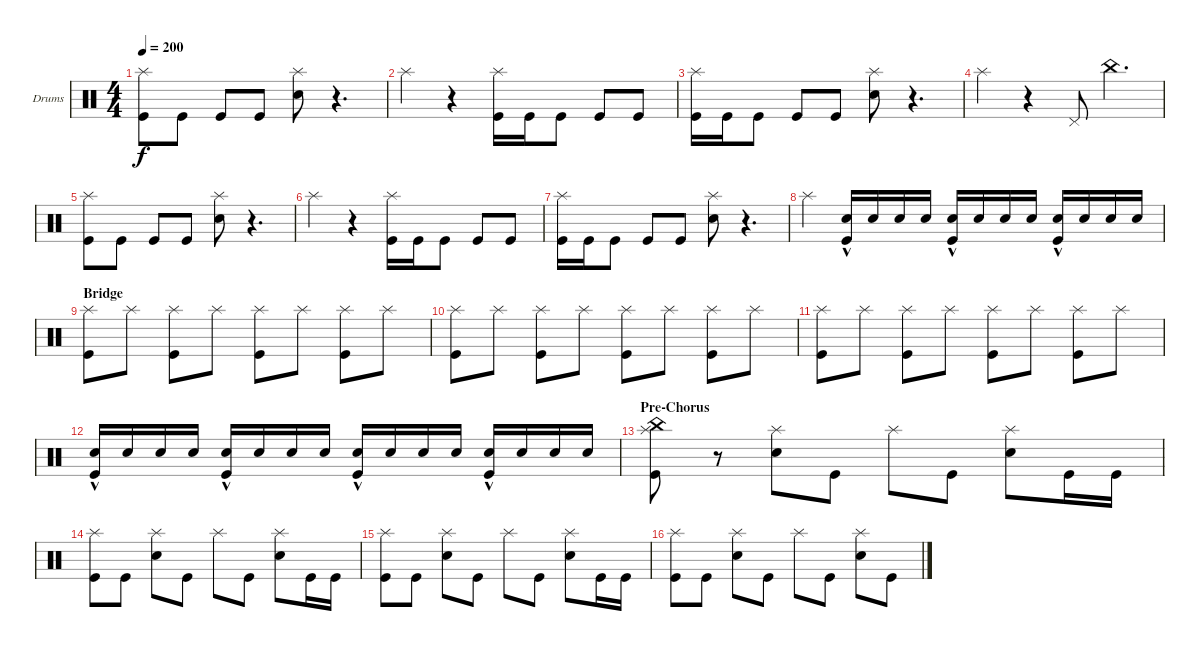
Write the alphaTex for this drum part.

\defaultSystemsLayout 4
\bracketExtendMode groupsimilarinstruments
\firstSystemTrackNameOrientation horizontal
\otherSystemsTrackNameOrientation horizontal
\track ("Drumkit" "Drums") {instrument percussion}
\staff {score}
\articulation defaults
\ts (4 4)
\tempo 200
\clef neutral
\ks c
("Kick (hit)" "Splash (hit)").8{dy f} "Kick (hit)".8 "Kick (hit)".8 "Kick (hit)".8 ("Splash (hit)" "Snare (hit) 2").8 r.4{d} |
"Splash (hit)".4 r.4 ("Kick (hit)" "Splash (hit)").16 "Kick (hit)".16 "Kick (hit)".8 "Kick (hit)".8 "Kick (hit)".8 |
("Kick (hit)" "Splash (hit)").16 "Kick (hit)".16 "Kick (hit)".8 "Kick (hit)".8 "Kick (hit)".8 ("Snare (hit) 2" "Splash (hit)").8 r.4{d} |
"Splash (hit)".4 r.4 "Pedal Hi-Hat (hit)".8 "China (hit)".4{d} |
("Kick (hit)" "Splash (hit)").8 "Kick (hit)".8 "Kick (hit)".8 "Kick (hit)".8 ("Splash (hit)" "Snare (hit) 2").8 r.4{d} |
"Splash (hit)".4 r.4 ("Kick (hit)" "Splash (hit)").16 "Kick (hit)".16 "Kick (hit)".8 "Kick (hit)".8 "Kick (hit)".8 |
("Kick (hit)" "Splash (hit)").16 "Kick (hit)".16 "Kick (hit)".8 "Kick (hit)".8 "Kick (hit)".8 ("Snare (hit) 2" "Splash (hit)").8 r.4{d} |
"Splash (hit)".4 ("Kick (hit)" "Snare (hit) 2"{hac}).16 "Snare (hit) 2".16 "Snare (hit) 2".16 "Snare (hit) 2".16 ("Kick (hit)" "Snare (hit) 2"{hac}).16 "Snare (hit) 2".16 "Snare (hit) 2".16 "Snare (hit) 2".16 ("Kick (hit)" "Snare (hit) 2"{hac}).16 "Snare (hit) 2".16 "Snare (hit) 2".16 "Snare (hit) 2".16 |
\section ("" "Bridge")
("Kick (hit)" "Splash (hit)").8 "Splash (hit)".8 ("Kick (hit)" "Splash (hit)").8 "Splash (hit)".8 ("Kick (hit)" "Splash (hit)").8 "Splash (hit)".8 ("Kick (hit)" "Splash (hit)").8 "Splash (hit)".8 |
("Kick (hit)" "Splash (hit)").8 "Splash (hit)".8 ("Kick (hit)" "Splash (hit)").8 "Splash (hit)".8 ("Kick (hit)" "Splash (hit)").8 "Splash (hit)".8 ("Kick (hit)" "Splash (hit)").8 "Splash (hit)".8 |
("Kick (hit)" "Splash (hit)").8 "Splash (hit)".8 ("Kick (hit)" "Splash (hit)").8 "Splash (hit)".8 ("Kick (hit)" "Splash (hit)").8 "Splash (hit)".8 ("Kick (hit)" "Splash (hit)").8 "Splash (hit)".8 |
("Kick (hit)" "Snare (hit) 2"{hac}).16 "Snare (hit) 2".16 "Snare (hit) 2".16 "Snare (hit) 2".16 ("Kick (hit)" "Snare (hit) 2"{hac}).16 "Snare (hit) 2".16 "Snare (hit) 2".16 "Snare (hit) 2".16 ("Kick (hit)" "Snare (hit) 2"{hac}).16 "Snare (hit) 2".16 "Snare (hit) 2".16 "Snare (hit) 2".16 ("Kick (hit)" "Snare (hit) 2"{hac}).16 "Snare (hit) 2".16 "Snare (hit) 2".16 "Snare (hit) 2".16 |
\section ("" "Pre-Chorus")
("Splash (hit)" "Kick (hit)" "China (hit)").8 r.8 ("Splash (hit)" "Snare (hit) 2").8 "Kick (hit)".8 "Splash (hit)".8 "Kick (hit)".8 ("Splash (hit)" "Snare (hit) 2").8 "Kick (hit)".16 "Kick (hit)".16 |
("Splash (hit)" "Kick (hit)").8 "Kick (hit)".8 ("Splash (hit)" "Snare (hit) 2").8 "Kick (hit)".8 "Splash (hit)".8 "Kick (hit)".8 ("Splash (hit)" "Snare (hit) 2").8 "Kick (hit)".16 "Kick (hit)".16 |
("Splash (hit)" "Kick (hit)").8 "Kick (hit)".8 ("Splash (hit)" "Snare (hit) 2").8 "Kick (hit)".8 "Splash (hit)".8 "Kick (hit)".8 ("Splash (hit)" "Snare (hit) 2").8 "Kick (hit)".16 "Kick (hit)".16 |
("Splash (hit)" "Kick (hit)").8 "Kick (hit)".8 ("Splash (hit)" "Snare (hit) 2").8 "Kick (hit)".8 "Splash (hit)".8 "Kick (hit)".8 ("Splash (hit)" "Snare (hit) 2").8 "Kick (hit)".8
